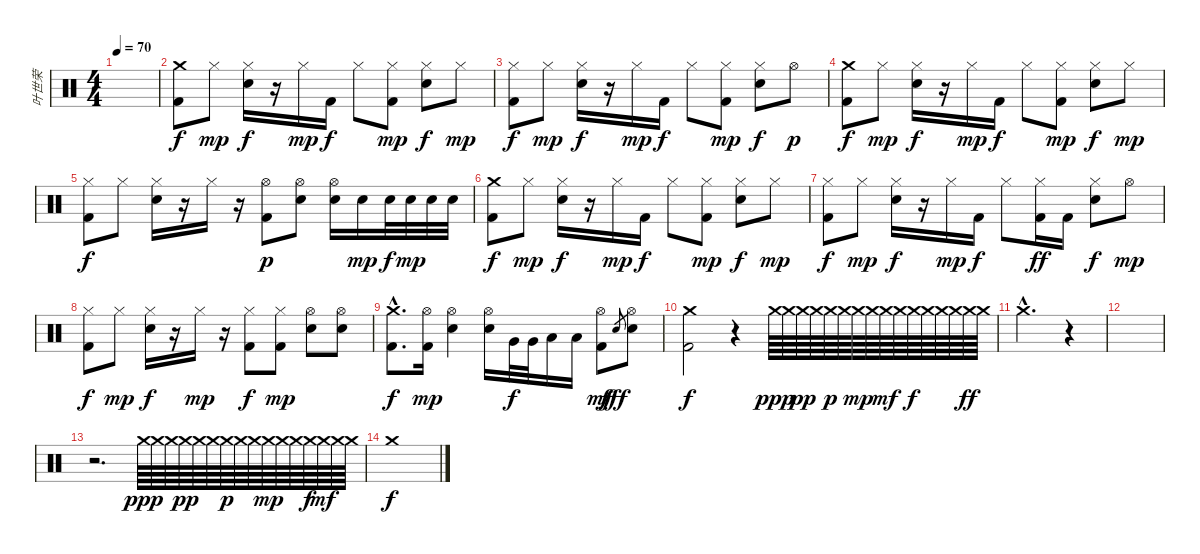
\track ("叶世荣" "叶世荣") {instrument percussion}
\staff {score}
\articulation defaults
\ts (4 4)
\tempo 70
\clef neutral
\ks c
|
("Crash medium (hit)" "Kick (hit) 2").8 "Hi-Hat (closed)".8{dy mp} ("Hi-Hat (closed)" "Electric Snare (hit)").16{dy f} r.16 "Hi-Hat (closed)".16{dy mp} "Kick (hit) 2".16{dy f} "Hi-Hat (closed)".8 ("Hi-Hat (closed)" "Kick (hit) 2").8{dy mp} ("Hi-Hat (closed)" "Electric Snare (hit)").8{dy f} "Hi-Hat (closed)".8{dy mp} |
("Hi-Hat (closed)" "Kick (hit) 2").8{dy f} "Hi-Hat (closed)".8{dy mp} ("Hi-Hat (closed)" "Electric Snare (hit)").16{dy f} r.16 "Hi-Hat (closed)".16{dy mp} "Kick (hit) 2".16{dy f} "Hi-Hat (closed)".8 ("Hi-Hat (closed)" "Kick (hit) 2").8{dy mp} ("Hi-Hat (closed)" "Electric Snare (hit)").8{dy f} "Hi-Hat (open)".8{dy p} |
("Crash medium (hit)" "Kick (hit) 2").8{dy f} "Hi-Hat (closed)".8{dy mp} ("Hi-Hat (closed)" "Electric Snare (hit)").16{dy f} r.16 "Hi-Hat (closed)".16{dy mp} "Kick (hit) 2".16{dy f} "Hi-Hat (closed)".8 ("Hi-Hat (closed)" "Kick (hit) 2").8{dy mp} ("Hi-Hat (closed)" "Electric Snare (hit)").8{dy f} "Hi-Hat (closed)".8{dy mp} |
("Hi-Hat (closed)" "Kick (hit) 2").8{dy f} "Hi-Hat (closed)".8 ("Hi-Hat (closed)" "Electric Snare (hit)").16 r.16 "Hi-Hat (closed)".16 r.16 ("Hi-Hat (open)" "Kick (hit) 2").8{dy p} ("Hi-Hat (open)" "Electric Snare (hit)").8 ("Hi-Hat (open)" "Electric Snare (hit)").16 "Electric Snare (hit)".16{dy mp} "Electric Snare (hit)".32{dy f} "Electric Snare (hit)".32{dy mp} "Electric Snare (hit)".32 "Electric Snare (hit)".32 |
("Crash medium (hit)" "Kick (hit) 2").8{dy f} "Hi-Hat (closed)".8{dy mp} ("Hi-Hat (closed)" "Electric Snare (hit)").16{dy f} r.16 "Hi-Hat (closed)".16{dy mp} "Kick (hit) 2".16{dy f} "Hi-Hat (closed)".8 ("Hi-Hat (closed)" "Kick (hit) 2").8{dy mp} ("Hi-Hat (closed)" "Electric Snare (hit)").8{dy f} "Hi-Hat (closed)".8{dy mp} |
("Hi-Hat (closed)" "Kick (hit) 2").8{dy f} "Hi-Hat (closed)".8{dy mp} ("Hi-Hat (closed)" "Electric Snare (hit)").16{dy f} r.16 "Hi-Hat (closed)".16{dy mp} "Kick (hit) 2".16{dy f} "Hi-Hat (closed)".8 ("Hi-Hat (closed)" "Kick (hit) 2").16{dy ff} "Kick (hit) 2".16 ("Hi-Hat (closed)" "Electric Snare (hit)").8{dy f} "Hi-Hat (open)".8{dy mp} |
("Hi-Hat (closed)" "Kick (hit) 2").8{dy f} "Hi-Hat (closed)".8{dy mp} ("Hi-Hat (closed)" "Electric Snare (hit)").16{dy f} r.16 "Hi-Hat (closed)".16{dy mp} r.16 ("Hi-Hat (closed)" "Kick (hit) 2").8{dy f} ("Hi-Hat (closed)" "Kick (hit) 2").8{dy mp} ("Hi-Hat (open)" "Electric Snare (hit)").8 ("Hi-Hat (open)" "Electric Snare (hit)").8 |
("Crash medium (hit)"{hac} "Kick (hit) 2"{hac}).8{d dy f} ("Hi-Hat (open)" "Kick (hit) 2").16{dy mp} ("Hi-Hat (open)" "Electric Snare (hit)").4 ("Hi-Hat (open)" "Electric Snare (hit)").16 "Very Low Tom (hit)".32{dy f} "Very Low Tom (hit)".32 "Low Floor Tom (hit)".16 "Low Floor Tom (hit)".16 ("Hi-Hat (open)" "Kick (hit) 2").8{dy mf} "Electric Snare (hit)"{sl}.8{gr dy fff} ("Hi-Hat (open)" "Electric Snare (hit)").8 |
("Crash medium (hit)" "Kick (hit) 2").2{dy f} r.4 "Crash medium (hit)".64{dy ppp} "Crash medium (hit)".64 "Crash medium (hit)".64{dy pp} "Crash medium (hit)".64 "Crash medium (hit)".64{dy p} "Crash medium (hit)".64 "Crash medium (hit)".64{dy mp} "Crash medium (hit)".64 "Crash medium (hit)".64{dy mf} "Crash medium (hit)".64 "Crash medium (hit)".64{dy f} "Crash medium (hit)".64 "Crash medium (hit)".64 "Crash medium (hit)".64 "Crash medium (hit)".64{dy ff} "Crash medium (hit)".64 |
"Crash medium (hit)"{hac}.2{d} r.4 |
|
r.2{d} "Crash medium (hit)".64{dy ppp} "Crash medium (hit)".64 "Crash medium (hit)".64 "Crash medium (hit)".64{dy pp} "Crash medium (hit)".64 "Crash medium (hit)".64 "Crash medium (hit)".64{dy p} "Crash medium (hit)".64 "Crash medium (hit)".64 "Crash medium (hit)".64{dy mp} "Crash medium (hit)".64 "Crash medium (hit)".64 "Crash medium (hit)".64{dy f} "Crash medium (hit)".64{dy mf} "Crash medium (hit)".64 "Crash medium (hit)".64 |
"Crash medium (hit)".1{dy f}
